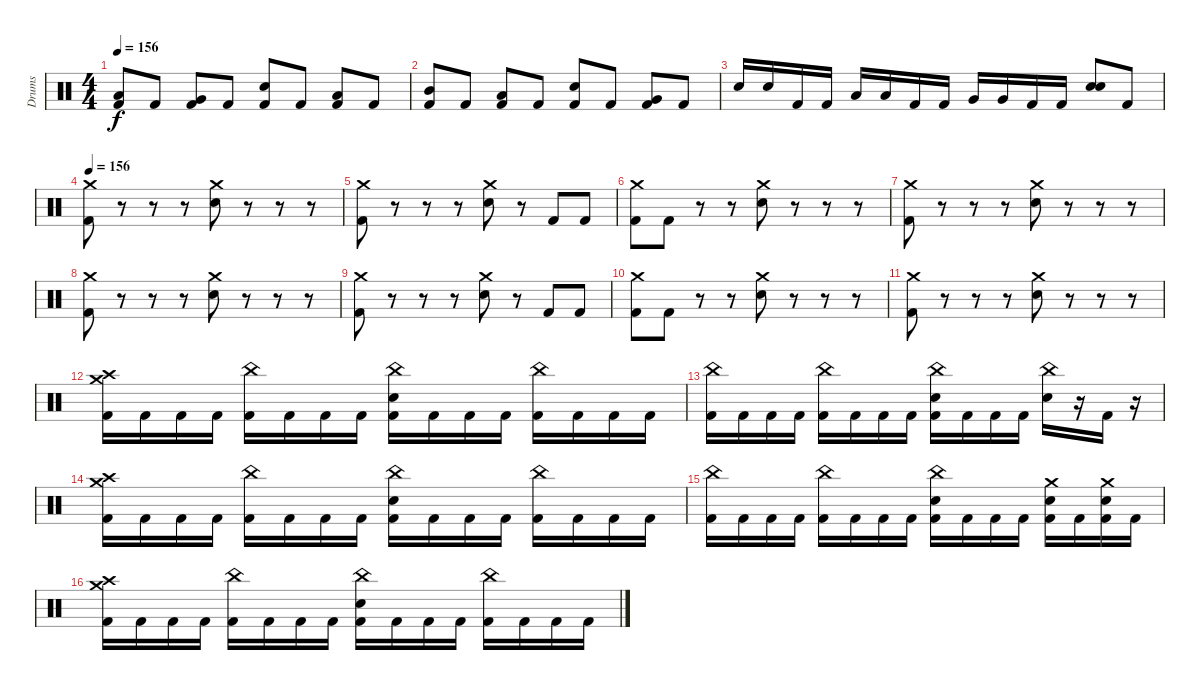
\track ("Drums" "Drums") {instrument percussion}
\staff {score}
\articulation defaults
\ts (4 4)
\tempo 156
\clef neutral
\ks c
("Low Tom (hit)" "Kick (hit) 2").8{dy f} "Kick (hit) 2".8 ("Very Low Tom (hit)" "Kick (hit) 2").8 "Kick (hit) 2".8 ("Snare (hit) 2" "Kick (hit) 2").8 "Kick (hit) 2".8 ("Low Tom (hit)" "Kick (hit) 2").8 "Kick (hit) 2".8 |
("Mid Tom (hit)" "Kick (hit) 2").8 "Kick (hit) 2".8 ("Low Tom (hit)" "Kick (hit) 2").8 "Kick (hit) 2".8 ("Snare (hit) 2" "Kick (hit) 2").8 "Kick (hit) 2".8 ("Very Low Tom (hit)" "Kick (hit) 2").8 "Kick (hit) 2".8 |
"Snare (hit) 2".16 "Snare (hit) 2".16 "Kick (hit) 2".16 "Kick (hit) 2".16 "Low Tom (hit)".16 "Low Tom (hit)".16 "Kick (hit) 2".16 "Kick (hit) 2".16 "Very Low Tom (hit)".16 "Very Low Tom (hit)".16 "Kick (hit) 2".16 "Kick (hit) 2".16 ("Snare (hit) 2" "Snare (hit) 2").8 "Kick (hit) 2".8 |
\tempo 156
("Crash medium (hit)" "Kick (hit) 2").8 r.8 r.8 r.8 ("Crash medium (hit)" "Snare (hit) 2").8 r.8 r.8 r.8 |
("Crash medium (hit)" "Kick (hit) 2").8 r.8 r.8 r.8 ("Crash medium (hit)" "Snare (hit) 2").8 r.8 "Kick (hit) 2".8 "Kick (hit) 2".8 |
("Crash medium (hit)" "Kick (hit) 2").8 "Kick (hit) 2".8 r.8 r.8 ("Crash medium (hit)" "Snare (hit) 2").8 r.8 r.8 r.8 |
("Crash medium (hit)" "Kick (hit) 2").8 r.8 r.8 r.8 ("Crash medium (hit)" "Snare (hit) 2").8 r.8 r.8 r.8 |
("Crash medium (hit)" "Kick (hit) 2").8 r.8 r.8 r.8 ("Crash medium (hit)" "Snare (hit) 2").8 r.8 r.8 r.8 |
("Crash medium (hit)" "Kick (hit) 2").8 r.8 r.8 r.8 ("Crash medium (hit)" "Snare (hit) 2").8 r.8 "Kick (hit) 2".8 "Kick (hit) 2".8 |
("Crash medium (hit)" "Kick (hit) 2").8 "Kick (hit) 2".8 r.8 r.8 ("Crash medium (hit)" "Snare (hit) 2").8 r.8 r.8 r.8 |
("Crash medium (hit)" "Kick (hit) 2").8 r.8 r.8 r.8 ("Crash medium (hit)" "Snare (hit) 2").8 r.8 r.8 r.8 |
("Crash high (hit)" "Crash medium (hit)" "Kick (hit) 2").16 "Kick (hit) 2".16 "Kick (hit) 2".16 "Kick (hit) 2".16 ("China (hit)" "Kick (hit) 2").16 "Kick (hit) 2".16 "Kick (hit) 2".16 "Kick (hit) 2".16 ("China (hit)" "Snare (hit) 2" "Kick (hit) 2").16 "Kick (hit) 2".16 "Kick (hit) 2".16 "Kick (hit) 2".16 ("China (hit)" "Kick (hit) 2").16 "Kick (hit) 2".16 "Kick (hit) 2".16 "Kick (hit) 2".16 |
("China (hit)" "Kick (hit) 2").16 "Kick (hit) 2".16 "Kick (hit) 2".16 "Kick (hit) 2".16 ("China (hit)" "Kick (hit) 2").16 "Kick (hit) 2".16 "Kick (hit) 2".16 "Kick (hit) 2".16 ("China (hit)" "Snare (hit) 2" "Kick (hit) 2").16 "Kick (hit) 2".16 "Kick (hit) 2".16 "Kick (hit) 2".16 ("China (hit)" "Snare (hit) 2").16 r.16 "Kick (hit) 2".16 r.16 |
("Crash high (hit)" "Crash medium (hit)" "Kick (hit) 2").16 "Kick (hit) 2".16 "Kick (hit) 2".16 "Kick (hit) 2".16 ("China (hit)" "Kick (hit) 2").16 "Kick (hit) 2".16 "Kick (hit) 2".16 "Kick (hit) 2".16 ("China (hit)" "Snare (hit) 2" "Kick (hit) 2").16 "Kick (hit) 2".16 "Kick (hit) 2".16 "Kick (hit) 2".16 ("China (hit)" "Kick (hit) 2").16 "Kick (hit) 2".16 "Kick (hit) 2".16 "Kick (hit) 2".16 |
("China (hit)" "Kick (hit) 2").16 "Kick (hit) 2".16 "Kick (hit) 2".16 "Kick (hit) 2".16 ("China (hit)" "Kick (hit) 2").16 "Kick (hit) 2".16 "Kick (hit) 2".16 "Kick (hit) 2".16 ("China (hit)" "Snare (hit) 2" "Kick (hit) 2").16 "Kick (hit) 2".16 "Kick (hit) 2".16 "Kick (hit) 2".16 ("Crash medium (hit)" "Snare (hit) 2" "Kick (hit) 2").16 "Kick (hit) 2".16 ("Crash medium (hit)" "Snare (hit) 2" "Kick (hit) 2").16 "Kick (hit) 2".16 |
("Crash high (hit)" "Crash medium (hit)" "Kick (hit) 2").16 "Kick (hit) 2".16 "Kick (hit) 2".16 "Kick (hit) 2".16 ("China (hit)" "Kick (hit) 2").16 "Kick (hit) 2".16 "Kick (hit) 2".16 "Kick (hit) 2".16 ("China (hit)" "Snare (hit) 2" "Kick (hit) 2").16 "Kick (hit) 2".16 "Kick (hit) 2".16 "Kick (hit) 2".16 ("China (hit)" "Kick (hit) 2").16 "Kick (hit) 2".16 "Kick (hit) 2".16 "Kick (hit) 2".16
